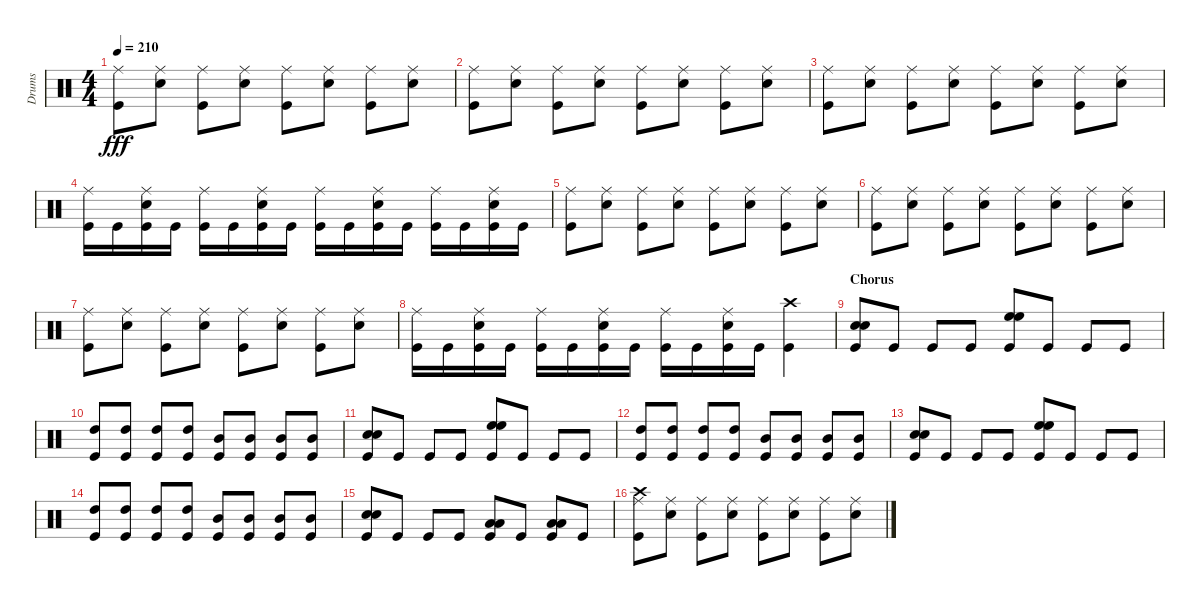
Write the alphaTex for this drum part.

\track ("Drums" "Drums") {instrument percussion}
\staff {score}
\articulation defaults
\ts (4 4)
\tempo 210
\clef neutral
\ks c
("Ride (middle)" "Kick (hit)").8{dy fff} ("Ride (middle)" "Snare (hit) 2").8 ("Ride (middle)" "Kick (hit)").8 ("Ride (middle)" "Snare (hit) 2").8 ("Ride (middle)" "Kick (hit)").8 ("Ride (middle)" "Snare (hit) 2").8 ("Ride (middle)" "Kick (hit)").8 ("Ride (middle)" "Snare (hit) 2").8 |
("Ride (middle)" "Kick (hit)").8 ("Ride (middle)" "Snare (hit) 2").8 ("Ride (middle)" "Kick (hit)").8 ("Ride (middle)" "Snare (hit) 2").8 ("Ride (middle)" "Kick (hit)").8 ("Ride (middle)" "Snare (hit) 2").8 ("Ride (middle)" "Kick (hit)").8 ("Ride (middle)" "Snare (hit) 2").8 |
("Ride (middle)" "Kick (hit)").8 ("Ride (middle)" "Snare (hit) 2").8 ("Ride (middle)" "Kick (hit)").8 ("Ride (middle)" "Snare (hit) 2").8 ("Ride (middle)" "Kick (hit)").8 ("Ride (middle)" "Snare (hit) 2").8 ("Ride (middle)" "Kick (hit)").8 ("Ride (middle)" "Snare (hit) 2").8 |
("Ride (middle)" "Kick (hit)").16 "Kick (hit)".16 ("Ride (middle)" "Snare (hit) 2" "Kick (hit)").16 "Kick (hit)".16 ("Ride (middle)" "Kick (hit)").16 "Kick (hit)".16 ("Ride (middle)" "Snare (hit) 2" "Kick (hit)").16 "Kick (hit)".16 ("Ride (middle)" "Kick (hit)").16 "Kick (hit)".16 ("Ride (middle)" "Snare (hit) 2" "Kick (hit)").16 "Kick (hit)".16 ("Ride (middle)" "Kick (hit)").16 "Kick (hit)".16 ("Ride (middle)" "Snare (hit) 2" "Kick (hit)").16 "Kick (hit)".16 |
("Ride (middle)" "Kick (hit)").8 ("Ride (middle)" "Snare (hit) 2").8 ("Ride (middle)" "Kick (hit)").8 ("Ride (middle)" "Snare (hit) 2").8 ("Ride (middle)" "Kick (hit)").8 ("Ride (middle)" "Snare (hit) 2").8 ("Ride (middle)" "Kick (hit)").8 ("Ride (middle)" "Snare (hit) 2").8 |
("Ride (middle)" "Kick (hit)").8 ("Ride (middle)" "Snare (hit) 2").8 ("Ride (middle)" "Kick (hit)").8 ("Ride (middle)" "Snare (hit) 2").8 ("Ride (middle)" "Kick (hit)").8 ("Ride (middle)" "Snare (hit) 2").8 ("Ride (middle)" "Kick (hit)").8 ("Ride (middle)" "Snare (hit) 2").8 |
("Ride (middle)" "Kick (hit)").8 ("Ride (middle)" "Snare (hit) 2").8 ("Ride (middle)" "Kick (hit)").8 ("Ride (middle)" "Snare (hit) 2").8 ("Ride (middle)" "Kick (hit)").8 ("Ride (middle)" "Snare (hit) 2").8 ("Ride (middle)" "Kick (hit)").8 ("Ride (middle)" "Snare (hit) 2").8 |
("Ride (middle)" "Kick (hit)").16 "Kick (hit)".16 ("Ride (middle)" "Snare (hit) 2" "Kick (hit)").16 "Kick (hit)".16 ("Ride (middle)" "Kick (hit)").16 "Kick (hit)".16 ("Ride (middle)" "Snare (hit) 2" "Kick (hit)").16 "Kick (hit)".16 ("Ride (middle)" "Kick (hit)").16 "Kick (hit)".16 ("Ride (middle)" "Snare (hit) 2" "Kick (hit)").16 "Kick (hit)".16 ("Crash high (hit)" "Kick (hit)").4 |
\section ("" "Chorus")
("Snare (hit) 2" "Snare (hit) 2" "Kick (hit)").8 "Kick (hit)".8 "Kick (hit)".8 "Kick (hit)".8 ("High Floor Tom (hit)" "High Floor Tom (hit)" "Kick (hit)").8 "Kick (hit)".8 "Kick (hit)".8 "Kick (hit)".8 |
("High Tom (hit)" "Kick (hit)").8 ("High Tom (hit)" "Kick (hit)").8 ("High Tom (hit)" "Kick (hit)").8 ("High Tom (hit)" "Kick (hit)").8 ("Mid Tom (hit)" "Kick (hit)").8 ("Mid Tom (hit)" "Kick (hit)").8 ("Mid Tom (hit)" "Kick (hit)").8 ("Mid Tom (hit)" "Kick (hit)").8 |
("Snare (hit) 2" "Snare (hit) 2" "Kick (hit)").8 "Kick (hit)".8 "Kick (hit)".8 "Kick (hit)".8 ("High Floor Tom (hit)" "High Floor Tom (hit)" "Kick (hit)").8 "Kick (hit)".8 "Kick (hit)".8 "Kick (hit)".8 |
("High Tom (hit)" "Kick (hit)").8 ("High Tom (hit)" "Kick (hit)").8 ("High Tom (hit)" "Kick (hit)").8 ("High Tom (hit)" "Kick (hit)").8 ("Mid Tom (hit)" "Kick (hit)").8 ("Mid Tom (hit)" "Kick (hit)").8 ("Mid Tom (hit)" "Kick (hit)").8 ("Mid Tom (hit)" "Kick (hit)").8 |
("Snare (hit) 2" "Snare (hit) 2" "Kick (hit)").8 "Kick (hit)".8 "Kick (hit)".8 "Kick (hit)".8 ("High Floor Tom (hit)" "High Floor Tom (hit)" "Kick (hit)").8 "Kick (hit)".8 "Kick (hit)".8 "Kick (hit)".8 |
("High Tom (hit)" "Kick (hit)").8 ("High Tom (hit)" "Kick (hit)").8 ("High Tom (hit)" "Kick (hit)").8 ("High Tom (hit)" "Kick (hit)").8 ("Mid Tom (hit)" "Kick (hit)").8 ("Mid Tom (hit)" "Kick (hit)").8 ("Mid Tom (hit)" "Kick (hit)").8 ("Mid Tom (hit)" "Kick (hit)").8 |
("Snare (hit) 2" "Snare (hit) 2" "Kick (hit)").8 "Kick (hit)".8 "Kick (hit)".8 "Kick (hit)".8 ("Low Tom (hit)" "Low Tom (hit)" "Kick (hit)").8 "Kick (hit)".8 ("Low Tom (hit)" "Low Tom (hit)" "Kick (hit)").8 "Kick (hit)".8 |
("Ride (middle)" "Crash high (hit)" "Kick (hit)").8 ("Ride (middle)" "Snare (hit) 2").8 ("Ride (middle)" "Kick (hit)").8 ("Ride (middle)" "Snare (hit) 2").8 ("Ride (middle)" "Kick (hit)").8 ("Ride (middle)" "Snare (hit) 2").8 ("Ride (middle)" "Kick (hit)").8 ("Ride (middle)" "Snare (hit) 2").8
